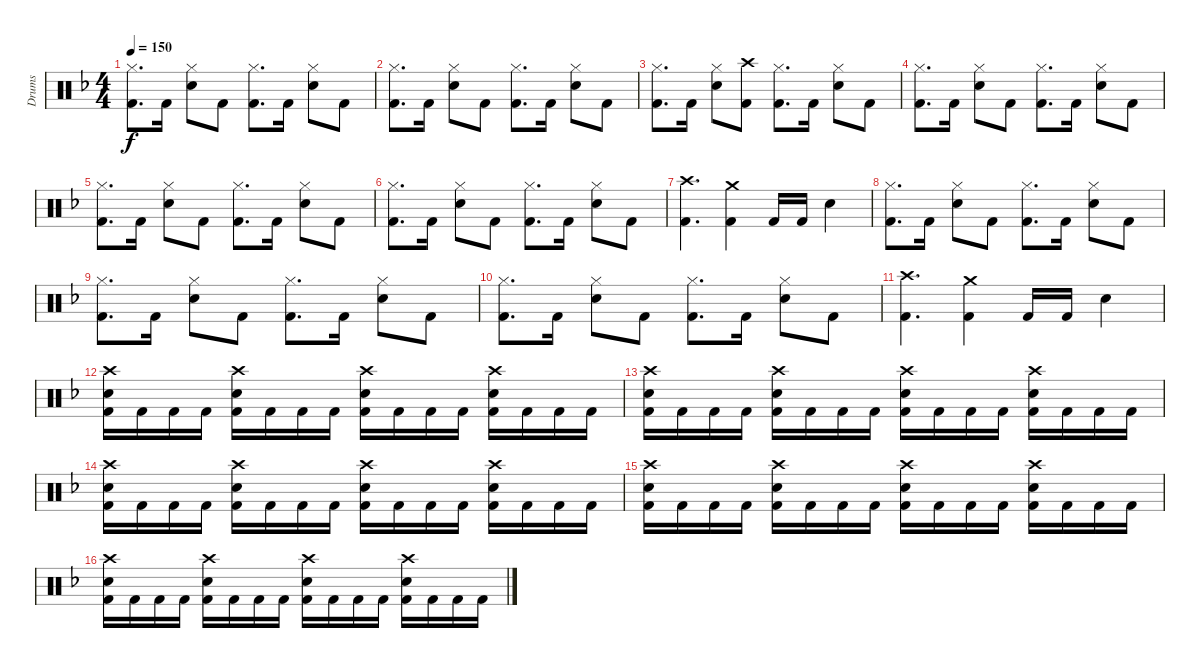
\track ("Drums" "Drums") {instrument percussion}
\staff {score}
\articulation defaults
\ts (4 4)
\tempo 150
\clef neutral
\ks f
("Kick (hit) 2" "Hi-Hat (closed)").8{d dy f} "Kick (hit) 2".16 ("Snare (hit) 2" "Hi-Hat (closed)").8 "Kick (hit) 2".8 ("Kick (hit) 2" "Hi-Hat (closed)").8{d} "Kick (hit) 2".16 ("Snare (hit) 2" "Hi-Hat (closed)").8 "Kick (hit) 2".8 |
("Kick (hit) 2" "Hi-Hat (closed)").8{d} "Kick (hit) 2".16 ("Snare (hit) 2" "Hi-Hat (closed)").8 "Kick (hit) 2".8 ("Kick (hit) 2" "Hi-Hat (closed)").8{d} "Kick (hit) 2".16 ("Snare (hit) 2" "Hi-Hat (closed)").8 "Kick (hit) 2".8 |
("Kick (hit) 2" "Hi-Hat (closed)").8{d} "Kick (hit) 2".16 ("Snare (hit) 2" "Hi-Hat (closed)").8 ("Kick (hit) 2" "Crash high (hit)").8 ("Kick (hit) 2" "Hi-Hat (closed)").8{d} "Kick (hit) 2".16 ("Snare (hit) 2" "Hi-Hat (closed)").8 "Kick (hit) 2".8 |
("Kick (hit) 2" "Hi-Hat (closed)").8{d} "Kick (hit) 2".16 ("Snare (hit) 2" "Hi-Hat (closed)").8 "Kick (hit) 2".8 ("Kick (hit) 2" "Hi-Hat (closed)").8{d} "Kick (hit) 2".16 ("Snare (hit) 2" "Hi-Hat (closed)").8 "Kick (hit) 2".8 |
("Kick (hit) 2" "Hi-Hat (closed)").8{d} "Kick (hit) 2".16 ("Snare (hit) 2" "Hi-Hat (closed)").8 "Kick (hit) 2".8 ("Kick (hit) 2" "Hi-Hat (closed)").8{d} "Kick (hit) 2".16 ("Snare (hit) 2" "Hi-Hat (closed)").8 "Kick (hit) 2".8 |
("Kick (hit) 2" "Hi-Hat (closed)").8{d} "Kick (hit) 2".16 ("Snare (hit) 2" "Hi-Hat (closed)").8 "Kick (hit) 2".8 ("Kick (hit) 2" "Hi-Hat (closed)").8{d} "Kick (hit) 2".16 ("Snare (hit) 2" "Hi-Hat (closed)").8 "Kick (hit) 2".8 |
("Kick (hit) 2" "Crash high (hit)").4{d} ("Kick (hit) 2" "Crash medium (hit)").4 "Kick (hit) 2".16 "Kick (hit) 2".16 "Snare (hit) 2".4 |
("Kick (hit) 2" "Hi-Hat (closed)").8{d} "Kick (hit) 2".16 ("Snare (hit) 2" "Hi-Hat (closed)").8 "Kick (hit) 2".8 ("Kick (hit) 2" "Hi-Hat (closed)").8{d} "Kick (hit) 2".16 ("Snare (hit) 2" "Hi-Hat (closed)").8 "Kick (hit) 2".8 |
("Kick (hit) 2" "Hi-Hat (closed)").8{d} "Kick (hit) 2".16 ("Snare (hit) 2" "Hi-Hat (closed)").8 "Kick (hit) 2".8 ("Kick (hit) 2" "Hi-Hat (closed)").8{d} "Kick (hit) 2".16 ("Snare (hit) 2" "Hi-Hat (closed)").8 "Kick (hit) 2".8 |
("Kick (hit) 2" "Hi-Hat (closed)").8{d} "Kick (hit) 2".16 ("Snare (hit) 2" "Hi-Hat (closed)").8 "Kick (hit) 2".8 ("Kick (hit) 2" "Hi-Hat (closed)").8{d} "Kick (hit) 2".16 ("Snare (hit) 2" "Hi-Hat (closed)").8 "Kick (hit) 2".8 |
("Kick (hit) 2" "Crash high (hit)").4{d} ("Kick (hit) 2" "Crash medium (hit)").4 "Kick (hit) 2".16 "Kick (hit) 2".16 "Snare (hit) 2".4 |
("Kick (hit) 2" "Crash high (hit)" "Snare (hit) 2").16 "Kick (hit) 2".16 "Kick (hit) 2".16 "Kick (hit) 2".16 ("Kick (hit) 2" "Crash high (hit)" "Snare (hit) 2").16 "Kick (hit) 2".16 "Kick (hit) 2".16 "Kick (hit) 2".16 ("Kick (hit) 2" "Crash high (hit)" "Snare (hit) 2").16 "Kick (hit) 2".16 "Kick (hit) 2".16 "Kick (hit) 2".16 ("Kick (hit) 2" "Crash high (hit)" "Snare (hit) 2").16 "Kick (hit) 2".16 "Kick (hit) 2".16 "Kick (hit) 2".16 |
("Kick (hit) 2" "Crash high (hit)" "Snare (hit) 2").16 "Kick (hit) 2".16 "Kick (hit) 2".16 "Kick (hit) 2".16 ("Kick (hit) 2" "Crash high (hit)" "Snare (hit) 2").16 "Kick (hit) 2".16 "Kick (hit) 2".16 "Kick (hit) 2".16 ("Kick (hit) 2" "Crash high (hit)" "Snare (hit) 2").16 "Kick (hit) 2".16 "Kick (hit) 2".16 "Kick (hit) 2".16 ("Kick (hit) 2" "Crash high (hit)" "Snare (hit) 2").16 "Kick (hit) 2".16 "Kick (hit) 2".16 "Kick (hit) 2".16 |
("Kick (hit) 2" "Crash high (hit)" "Snare (hit) 2").16 "Kick (hit) 2".16 "Kick (hit) 2".16 "Kick (hit) 2".16 ("Kick (hit) 2" "Crash high (hit)" "Snare (hit) 2").16 "Kick (hit) 2".16 "Kick (hit) 2".16 "Kick (hit) 2".16 ("Kick (hit) 2" "Crash high (hit)" "Snare (hit) 2").16 "Kick (hit) 2".16 "Kick (hit) 2".16 "Kick (hit) 2".16 ("Kick (hit) 2" "Crash high (hit)" "Snare (hit) 2").16 "Kick (hit) 2".16 "Kick (hit) 2".16 "Kick (hit) 2".16 |
("Kick (hit) 2" "Crash high (hit)" "Snare (hit) 2").16 "Kick (hit) 2".16 "Kick (hit) 2".16 "Kick (hit) 2".16 ("Kick (hit) 2" "Crash high (hit)" "Snare (hit) 2").16 "Kick (hit) 2".16 "Kick (hit) 2".16 "Kick (hit) 2".16 ("Kick (hit) 2" "Crash high (hit)" "Snare (hit) 2").16 "Kick (hit) 2".16 "Kick (hit) 2".16 "Kick (hit) 2".16 ("Kick (hit) 2" "Crash high (hit)" "Snare (hit) 2").16 "Kick (hit) 2".16 "Kick (hit) 2".16 "Kick (hit) 2".16 |
("Kick (hit) 2" "Crash high (hit)" "Snare (hit) 2").16 "Kick (hit) 2".16 "Kick (hit) 2".16 "Kick (hit) 2".16 ("Kick (hit) 2" "Crash high (hit)" "Snare (hit) 2").16 "Kick (hit) 2".16 "Kick (hit) 2".16 "Kick (hit) 2".16 ("Kick (hit) 2" "Crash high (hit)" "Snare (hit) 2").16 "Kick (hit) 2".16 "Kick (hit) 2".16 "Kick (hit) 2".16 ("Kick (hit) 2" "Crash high (hit)" "Snare (hit) 2").16 "Kick (hit) 2".16 "Kick (hit) 2".16 "Kick (hit) 2".16
